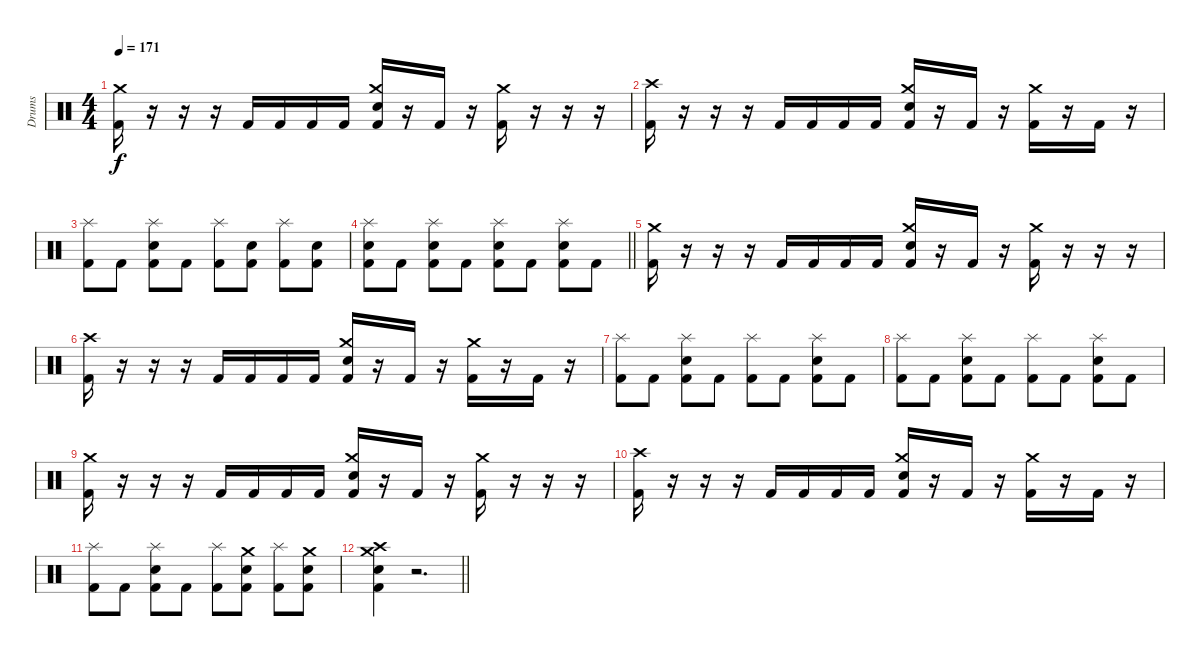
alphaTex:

\track ("Drums" "Drums") {instrument percussion}
\staff {score}
\articulation defaults
\ts (4 4)
\tempo 171
\clef neutral
\ks c
("Kick (hit) 2" "Crash medium (hit)").16{dy f} r.16 r.16 r.16 "Kick (hit) 2".16 "Kick (hit) 2".16 "Kick (hit) 2".16 "Kick (hit) 2".16 ("Kick (hit) 2" "Snare (hit) 2" "Crash medium (hit)").16 r.16 "Kick (hit) 2".16 r.16 ("Kick (hit) 2" "Crash medium (hit)").16 r.16 r.16 r.16 |
("Kick (hit) 2" "Crash high (hit)").16 r.16 r.16 r.16 "Kick (hit) 2".16 "Kick (hit) 2".16 "Kick (hit) 2".16 "Kick (hit) 2".16 ("Kick (hit) 2" "Snare (hit) 2" "Crash medium (hit)").16 r.16 "Kick (hit) 2".16 r.16 ("Kick (hit) 2" "Crash medium (hit)").16 r.16 "Kick (hit) 2".16 r.16 |
("Kick (hit) 2" "Splash (hit)").8 "Kick (hit) 2".8 ("Kick (hit) 2" "Snare (hit) 2" "Splash (hit)").8 "Kick (hit) 2".8 ("Kick (hit) 2" "Splash (hit)").8 ("Kick (hit) 2" "Snare (hit) 2").8 ("Kick (hit) 2" "Splash (hit)").8 ("Kick (hit) 2" "Snare (hit) 2").8 |
\barLineRight lightlight
("Kick (hit) 2" "Snare (hit) 2" "Splash (hit)").8 "Kick (hit) 2".8 ("Kick (hit) 2" "Snare (hit) 2" "Splash (hit)").8 "Kick (hit) 2".8 ("Kick (hit) 2" "Snare (hit) 2" "Splash (hit)").8 "Kick (hit) 2".8 ("Kick (hit) 2" "Snare (hit) 2" "Splash (hit)").8 "Kick (hit) 2".8 |
("Kick (hit) 2" "Crash medium (hit)").16 r.16 r.16 r.16 "Kick (hit) 2".16 "Kick (hit) 2".16 "Kick (hit) 2".16 "Kick (hit) 2".16 ("Kick (hit) 2" "Snare (hit) 2" "Crash medium (hit)").16 r.16 "Kick (hit) 2".16 r.16 ("Kick (hit) 2" "Crash medium (hit)").16 r.16 r.16 r.16 |
("Kick (hit) 2" "Crash high (hit)").16 r.16 r.16 r.16 "Kick (hit) 2".16 "Kick (hit) 2".16 "Kick (hit) 2".16 "Kick (hit) 2".16 ("Kick (hit) 2" "Snare (hit) 2" "Crash medium (hit)").16 r.16 "Kick (hit) 2".16 r.16 ("Kick (hit) 2" "Crash medium (hit)").16 r.16 "Kick (hit) 2".16 r.16 |
("Kick (hit) 2" "Splash (hit)").8 "Kick (hit) 2".8 ("Kick (hit) 2" "Snare (hit) 2" "Splash (hit)").8 "Kick (hit) 2".8 ("Kick (hit) 2" "Splash (hit)").8 "Kick (hit) 2".8 ("Kick (hit) 2" "Snare (hit) 2" "Splash (hit)").8 "Kick (hit) 2".8 |
("Kick (hit) 2" "Splash (hit)").8 "Kick (hit) 2".8 ("Kick (hit) 2" "Snare (hit) 2" "Splash (hit)").8 "Kick (hit) 2".8 ("Kick (hit) 2" "Splash (hit)").8 "Kick (hit) 2".8 ("Kick (hit) 2" "Snare (hit) 2" "Splash (hit)").8 "Kick (hit) 2".8 |
("Kick (hit) 2" "Crash medium (hit)").16 r.16 r.16 r.16 "Kick (hit) 2".16 "Kick (hit) 2".16 "Kick (hit) 2".16 "Kick (hit) 2".16 ("Kick (hit) 2" "Snare (hit) 2" "Crash medium (hit)").16 r.16 "Kick (hit) 2".16 r.16 ("Kick (hit) 2" "Crash medium (hit)").16 r.16 r.16 r.16 |
("Kick (hit) 2" "Crash high (hit)").16 r.16 r.16 r.16 "Kick (hit) 2".16 "Kick (hit) 2".16 "Kick (hit) 2".16 "Kick (hit) 2".16 ("Kick (hit) 2" "Snare (hit) 2" "Crash medium (hit)").16 r.16 "Kick (hit) 2".16 r.16 ("Kick (hit) 2" "Crash medium (hit)").16 r.16 "Kick (hit) 2".16 r.16 |
("Kick (hit) 2" "Splash (hit)").8 "Kick (hit) 2".8 ("Kick (hit) 2" "Snare (hit) 2" "Splash (hit)").8 "Kick (hit) 2".8 ("Kick (hit) 2" "Splash (hit)").8 ("Kick (hit) 2" "Snare (hit) 2" "Crash medium (hit)").8 ("Kick (hit) 2" "Splash (hit)").8 ("Kick (hit) 2" "Snare (hit) 2" "Crash medium (hit)").8 |
\barLineRight lightlight
("Kick (hit) 2" "Snare (hit) 2" "Crash medium (hit)" "Crash high (hit)").4 r.2{d}
